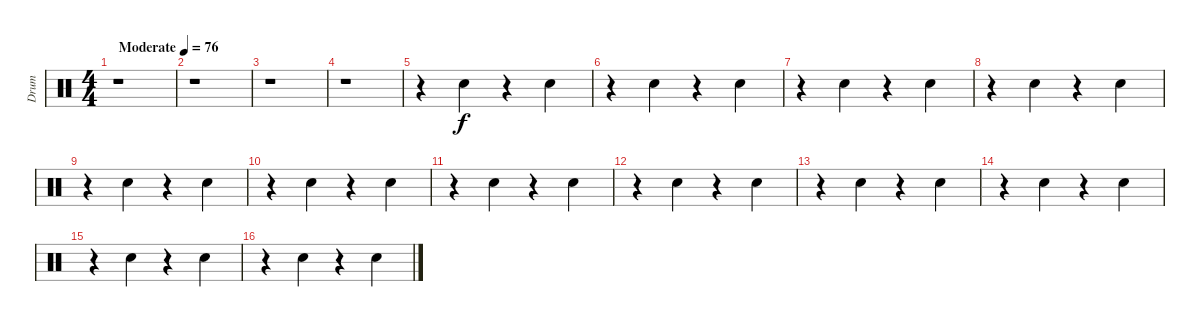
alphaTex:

\track ("Drum" "Drum") {instrument percussion}
\staff {score}
\articulation defaults
\ts (4 4)
\tempo (76 "Moderate")
\clef neutral
\ks c
r.1{dy f} |
r.1 |
r.1 |
r.1 |
r.4 "Electric Snare (hit)".4 r.4 "Electric Snare (hit)".4 |
r.4 "Electric Snare (hit)".4 r.4 "Electric Snare (hit)".4 |
r.4 "Electric Snare (hit)".4 r.4 "Electric Snare (hit)".4 |
r.4 "Electric Snare (hit)".4 r.4 "Electric Snare (hit)".4 |
r.4 "Electric Snare (hit)".4 r.4 "Electric Snare (hit)".4 |
r.4 "Electric Snare (hit)".4 r.4 "Electric Snare (hit)".4 |
r.4 "Electric Snare (hit)".4 r.4 "Electric Snare (hit)".4 |
r.4 "Electric Snare (hit)".4 r.4 "Electric Snare (hit)".4 |
r.4 "Electric Snare (hit)".4 r.4 "Electric Snare (hit)".4 |
r.4 "Electric Snare (hit)".4 r.4 "Electric Snare (hit)".4 |
r.4 "Electric Snare (hit)".4 r.4 "Electric Snare (hit)".4 |
r.4 "Electric Snare (hit)".4 r.4 "Electric Snare (hit)".4
